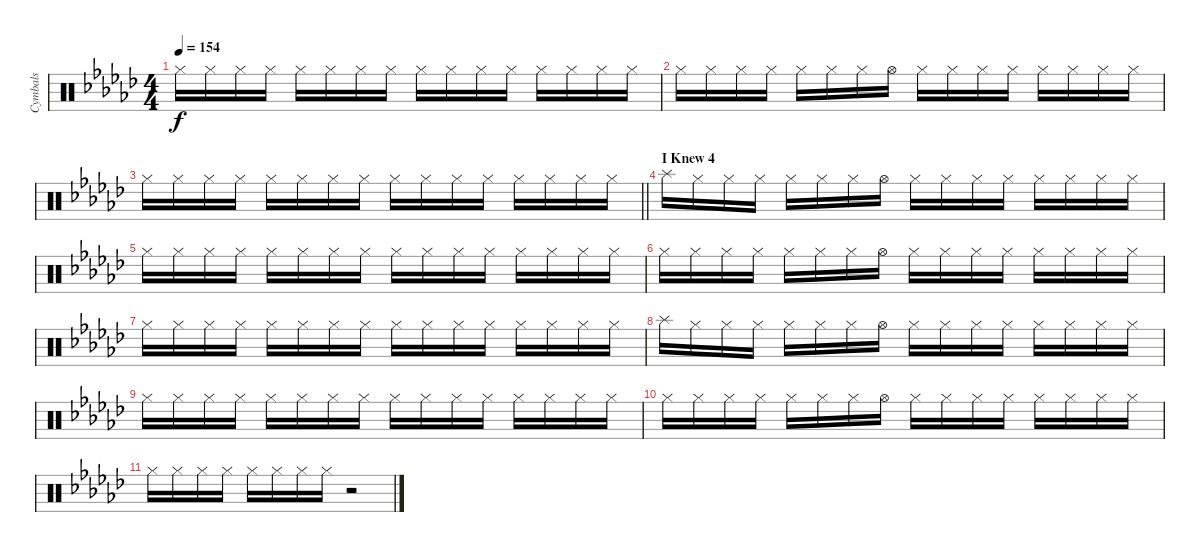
\track ("Cymbals" "Cymbals") {instrument percussion}
\staff {score}
\articulation defaults
\ts (4 4)
\tempo 154
\clef neutral
\ks gb "Hi-Hat (closed)".16{dy f} "Hi-Hat (closed)".16 "Hi-Hat (closed)".16 "Hi-Hat (closed)".16 "Hi-Hat (closed)".16 "Hi-Hat (closed)".16 "Hi-Hat (closed)".16 "Hi-Hat (closed)".16 "Hi-Hat (closed)".16 "Hi-Hat (closed)".16 "Hi-Hat (closed)".16 "Hi-Hat (closed)".16 "Hi-Hat (closed)".16 "Hi-Hat (closed)".16 "Hi-Hat (closed)".16 "Hi-Hat (closed)".16
|
"Hi-Hat (closed)".16 "Hi-Hat (closed)".16 "Hi-Hat (closed)".16 "Hi-Hat (closed)".16 "Hi-Hat (closed)".16 "Hi-Hat (closed)".16 "Hi-Hat (closed)".16 "Hi-Hat (open)".16 "Hi-Hat (closed)".16 "Hi-Hat (closed)".16 "Hi-Hat (closed)".16 "Hi-Hat (closed)".16 "Hi-Hat (closed)".16 "Hi-Hat (closed)".16 "Hi-Hat (closed)".16 "Hi-Hat (closed)".16 |
\barLineRight lightlight "Hi-Hat (closed)".16 "Hi-Hat (closed)".16 "Hi-Hat (closed)".16 "Hi-Hat (closed)".16 "Hi-Hat (closed)".16 "Hi-Hat (closed)".16 "Hi-Hat (closed)".16 "Hi-Hat (closed)".16 "Hi-Hat (closed)".16 "Hi-Hat (closed)".16 "Hi-Hat (closed)".16 "Hi-Hat (closed)".16 "Hi-Hat (closed)".16 "Hi-Hat (closed)".16 "Hi-Hat (closed)".16 "Hi-Hat (closed)".16
|
\section ("" "I Knew 4")
"Splash (hit)".16 "Hi-Hat (closed)".16 "Hi-Hat (closed)".16 "Hi-Hat (closed)".16 "Hi-Hat (closed)".16 "Hi-Hat (closed)".16 "Hi-Hat (closed)".16 "Hi-Hat (open)".16 "Hi-Hat (closed)".16 "Hi-Hat (closed)".16 "Hi-Hat (closed)".16 "Hi-Hat (closed)".16 "Hi-Hat (closed)".16 "Hi-Hat (closed)".16 "Hi-Hat (closed)".16 "Hi-Hat (closed)".16 |
"Hi-Hat (closed)".16 "Hi-Hat (closed)".16 "Hi-Hat (closed)".16 "Hi-Hat (closed)".16 "Hi-Hat (closed)".16 "Hi-Hat (closed)".16 "Hi-Hat (closed)".16 "Hi-Hat (closed)".16 "Hi-Hat (closed)".16 "Hi-Hat (closed)".16 "Hi-Hat (closed)".16 "Hi-Hat (closed)".16 "Hi-Hat (closed)".16 "Hi-Hat (closed)".16 "Hi-Hat (closed)".16 "Hi-Hat (closed)".16 |
"Hi-Hat (closed)".16 "Hi-Hat (closed)".16 "Hi-Hat (closed)".16 "Hi-Hat (closed)".16 "Hi-Hat (closed)".16 "Hi-Hat (closed)".16 "Hi-Hat (closed)".16 "Hi-Hat (open)".16 "Hi-Hat (closed)".16 "Hi-Hat (closed)".16 "Hi-Hat (closed)".16 "Hi-Hat (closed)".16 "Hi-Hat (closed)".16 "Hi-Hat (closed)".16 "Hi-Hat (closed)".16 "Hi-Hat (closed)".16 |
"Hi-Hat (closed)".16 "Hi-Hat (closed)".16 "Hi-Hat (closed)".16 "Hi-Hat (closed)".16 "Hi-Hat (closed)".16 "Hi-Hat (closed)".16 "Hi-Hat (closed)".16 "Hi-Hat (closed)".16 "Hi-Hat (closed)".16 "Hi-Hat (closed)".16 "Hi-Hat (closed)".16 "Hi-Hat (closed)".16 "Hi-Hat (closed)".16 "Hi-Hat (closed)".16 "Hi-Hat (closed)".16 "Hi-Hat (closed)".16 |
"Splash (hit)".16 "Hi-Hat (closed)".16 "Hi-Hat (closed)".16 "Hi-Hat (closed)".16 "Hi-Hat (closed)".16 "Hi-Hat (closed)".16 "Hi-Hat (closed)".16 "Hi-Hat (open)".16 "Hi-Hat (closed)".16 "Hi-Hat (closed)".16 "Hi-Hat (closed)".16 "Hi-Hat (closed)".16 "Hi-Hat (closed)".16 "Hi-Hat (closed)".16 "Hi-Hat (closed)".16 "Hi-Hat (closed)".16 |
"Hi-Hat (closed)".16 "Hi-Hat (closed)".16 "Hi-Hat (closed)".16 "Hi-Hat (closed)".16 "Hi-Hat (closed)".16 "Hi-Hat (closed)".16 "Hi-Hat (closed)".16 "Hi-Hat (closed)".16 "Hi-Hat (closed)".16 "Hi-Hat (closed)".16 "Hi-Hat (closed)".16 "Hi-Hat (closed)".16 "Hi-Hat (closed)".16 "Hi-Hat (closed)".16 "Hi-Hat (closed)".16 "Hi-Hat (closed)".16 |
"Hi-Hat (closed)".16 "Hi-Hat (closed)".16 "Hi-Hat (closed)".16 "Hi-Hat (closed)".16 "Hi-Hat (closed)".16 "Hi-Hat (closed)".16 "Hi-Hat (closed)".16 "Hi-Hat (open)".16 "Hi-Hat (closed)".16 "Hi-Hat (closed)".16 "Hi-Hat (closed)".16 "Hi-Hat (closed)".16 "Hi-Hat (closed)".16 "Hi-Hat (closed)".16 "Hi-Hat (closed)".16 "Hi-Hat (closed)".16 |
"Hi-Hat (closed)".16 "Hi-Hat (closed)".16 "Hi-Hat (closed)".16 "Hi-Hat (closed)".16 "Hi-Hat (closed)".16 "Hi-Hat (closed)".16 "Hi-Hat (closed)".16 "Hi-Hat (closed)".16 r.2
